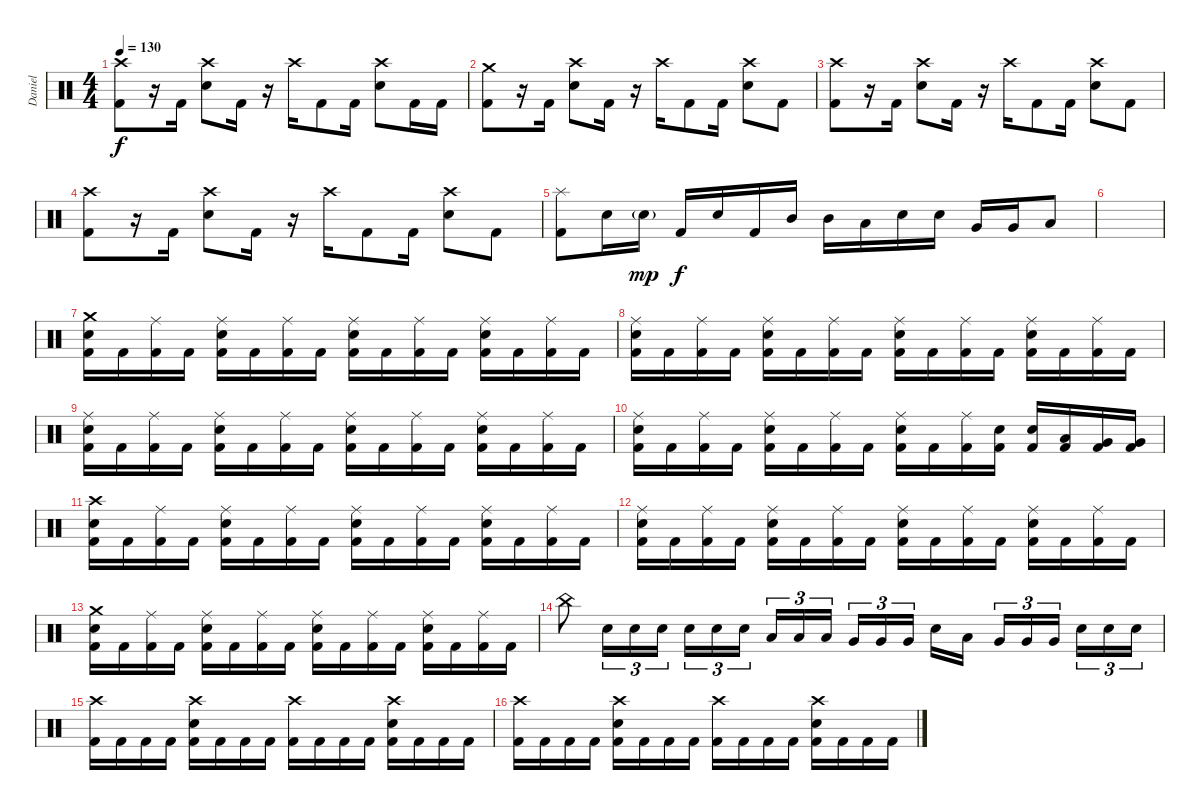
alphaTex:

\track ("Daniel" "Daniel") {instrument percussion}
\staff {score}
\articulation defaults
\ts (4 4)
\tempo 130
\clef neutral
\ks c
("Crash high (hit)" "Kick (hit) 2").8{dy f} r.16 "Kick (hit) 2".16 ("Crash high (hit)" "Electric Snare (hit)").8 "Kick (hit) 2".16 r.16 "Crash high (hit)".16 "Kick (hit) 2".8 "Kick (hit) 2".16 ("Crash high (hit)" "Electric Snare (hit)").8 "Kick (hit) 2".16 "Kick (hit) 2".16 |
("Crash medium (hit)" "Kick (hit) 2").8 r.16 "Kick (hit) 2".16 ("Crash high (hit)" "Electric Snare (hit)").8 "Kick (hit) 2".16 r.16 "Crash high (hit)".16 "Kick (hit) 2".8 "Kick (hit) 2".16 ("Crash high (hit)" "Electric Snare (hit)").8 "Kick (hit) 2".8 |
("Crash high (hit)" "Kick (hit) 2").8 r.16 "Kick (hit) 2".16 ("Crash high (hit)" "Electric Snare (hit)").8 "Kick (hit) 2".16 r.16 "Crash high (hit)".16 "Kick (hit) 2".8 "Kick (hit) 2".16 ("Crash high (hit)" "Electric Snare (hit)").8 "Kick (hit) 2".8 |
("Crash high (hit)" "Kick (hit) 2").8 r.16 "Kick (hit) 2".16 ("Crash high (hit)" "Electric Snare (hit)").8 "Kick (hit) 2".16 r.16 "Crash high (hit)".16 "Kick (hit) 2".8 "Kick (hit) 2".16 ("Crash high (hit)" "Electric Snare (hit)").8 "Kick (hit) 2".8 |
("Splash (hit)" "Kick (hit) 2").8 "Electric Snare (hit)".16 "Electric Snare (hit)"{g}.16{dy mp} "Kick (hit) 2".16{dy f} "Electric Snare (hit)".16 "Kick (hit) 2".16 "Mid Tom (hit)".16 "Mid Tom (hit)".16 "Low Tom (hit)".16 "Electric Snare (hit)".16 "Electric Snare (hit)".16 "Very Low Tom (hit)".16 "Very Low Tom (hit)".16 "Low Floor Tom (hit)".8 |
|
("Crash medium (hit)" "Electric Snare (hit)" "Kick (hit) 2").16 "Kick (hit) 2".16 ("Ride (middle)" "Kick (hit) 2").16 "Kick (hit) 2".16 ("Ride (middle)" "Electric Snare (hit)" "Kick (hit) 2").16 "Kick (hit) 2".16 ("Ride (middle)" "Kick (hit) 2").16 "Kick (hit) 2".16 ("Ride (middle)" "Electric Snare (hit)" "Kick (hit) 2").16 "Kick (hit) 2".16 ("Ride (middle)" "Kick (hit) 2").16 "Kick (hit) 2".16 ("Ride (middle)" "Electric Snare (hit)" "Kick (hit) 2").16 "Kick (hit) 2".16 ("Ride (middle)" "Kick (hit) 2").16 "Kick (hit) 2".16 |
("Ride (middle)" "Electric Snare (hit)" "Kick (hit) 2").16 "Kick (hit) 2".16 ("Ride (middle)" "Kick (hit) 2").16 "Kick (hit) 2".16 ("Ride (middle)" "Electric Snare (hit)" "Kick (hit) 2").16 "Kick (hit) 2".16 ("Ride (middle)" "Kick (hit) 2").16 "Kick (hit) 2".16 ("Ride (middle)" "Electric Snare (hit)" "Kick (hit) 2").16 "Kick (hit) 2".16 ("Ride (middle)" "Kick (hit) 2").16 "Kick (hit) 2".16 ("Ride (middle)" "Electric Snare (hit)" "Kick (hit) 2").16 "Kick (hit) 2".16 ("Ride (middle)" "Kick (hit) 2").16 "Kick (hit) 2".16 |
("Ride (middle)" "Electric Snare (hit)" "Kick (hit) 2").16 "Kick (hit) 2".16 ("Ride (middle)" "Kick (hit) 2").16 "Kick (hit) 2".16 ("Ride (middle)" "Electric Snare (hit)" "Kick (hit) 2").16 "Kick (hit) 2".16 ("Ride (middle)" "Kick (hit) 2").16 "Kick (hit) 2".16 ("Ride (middle)" "Electric Snare (hit)" "Kick (hit) 2").16 "Kick (hit) 2".16 ("Ride (middle)" "Kick (hit) 2").16 "Kick (hit) 2".16 ("Ride (middle)" "Electric Snare (hit)" "Kick (hit) 2").16 "Kick (hit) 2".16 ("Ride (middle)" "Kick (hit) 2").16 "Kick (hit) 2".16 |
("Ride (middle)" "Electric Snare (hit)" "Kick (hit) 2").16 "Kick (hit) 2".16 ("Ride (middle)" "Kick (hit) 2").16 "Kick (hit) 2".16 ("Ride (middle)" "Electric Snare (hit)" "Kick (hit) 2").16 "Kick (hit) 2".16 ("Ride (middle)" "Kick (hit) 2").16 "Kick (hit) 2".16 ("Ride (middle)" "Electric Snare (hit)" "Kick (hit) 2").16 "Kick (hit) 2".16 ("Ride (middle)" "Kick (hit) 2").16 ("Electric Snare (hit)" "Kick (hit) 2").16 ("Electric Snare (hit)" "Kick (hit) 2").16 ("Low Tom (hit)" "Kick (hit) 2").16 ("Very Low Tom (hit)" "Kick (hit) 2").16 ("Very Low Tom (hit)" "Kick (hit) 2").16 |
("Crash high (hit)" "Electric Snare (hit)" "Kick (hit) 2").16 "Kick (hit) 2".16 ("Ride (middle)" "Kick (hit) 2").16 "Kick (hit) 2".16 ("Ride (middle)" "Electric Snare (hit)" "Kick (hit) 2").16 "Kick (hit) 2".16 ("Ride (middle)" "Kick (hit) 2").16 "Kick (hit) 2".16 ("Ride (middle)" "Electric Snare (hit)" "Kick (hit) 2").16 "Kick (hit) 2".16 ("Ride (middle)" "Kick (hit) 2").16 "Kick (hit) 2".16 ("Ride (middle)" "Electric Snare (hit)" "Kick (hit) 2").16 "Kick (hit) 2".16 ("Ride (middle)" "Kick (hit) 2").16 "Kick (hit) 2".16 |
("Ride (middle)" "Electric Snare (hit)" "Kick (hit) 2").16 "Kick (hit) 2".16 ("Ride (middle)" "Kick (hit) 2").16 "Kick (hit) 2".16 ("Ride (middle)" "Electric Snare (hit)" "Kick (hit) 2").16 "Kick (hit) 2".16 ("Ride (middle)" "Kick (hit) 2").16 "Kick (hit) 2".16 ("Ride (middle)" "Electric Snare (hit)" "Kick (hit) 2").16 "Kick (hit) 2".16 ("Ride (middle)" "Kick (hit) 2").16 "Kick (hit) 2".16 ("Ride (middle)" "Electric Snare (hit)" "Kick (hit) 2").16 "Kick (hit) 2".16 ("Ride (middle)" "Kick (hit) 2").16 "Kick (hit) 2".16 |
("Crash medium (hit)" "Electric Snare (hit)" "Kick (hit) 2").16 "Kick (hit) 2".16 ("Ride (middle)" "Kick (hit) 2").16 "Kick (hit) 2".16 ("Ride (middle)" "Electric Snare (hit)" "Kick (hit) 2").16 "Kick (hit) 2".16 ("Ride (middle)" "Kick (hit) 2").16 "Kick (hit) 2".16 ("Ride (middle)" "Electric Snare (hit)" "Kick (hit) 2").16 "Kick (hit) 2".16 ("Ride (middle)" "Kick (hit) 2").16 "Kick (hit) 2".16 ("Ride (middle)" "Electric Snare (hit)" "Kick (hit) 2").16 "Kick (hit) 2".16 ("Ride (middle)" "Kick (hit) 2").16 "Kick (hit) 2".16 |
"China (hit)".8 "Electric Snare (hit)".16{tu (3 2)} "Electric Snare (hit)".16{tu (3 2)} "Electric Snare (hit)".16{tu (3 2)} "Electric Snare (hit)".16{tu (3 2)} "Electric Snare (hit)".16{tu (3 2)} "Electric Snare (hit)".16{tu (3 2)} "Low Tom (hit)".16{tu (3 2)} "Low Tom (hit)".16{tu (3 2)} "Low Tom (hit)".16{tu (3 2)} "Very Low Tom (hit)".16{tu (3 2)} "Very Low Tom (hit)".16{tu (3 2)} "Very Low Tom (hit)".16{tu (3 2)} "Electric Snare (hit)".16 "Low Tom (hit)".16 "Very Low Tom (hit)".16{tu (3 2)} "Very Low Tom (hit)".16{tu (3 2)} "Very Low Tom (hit)".16{tu (3 2)} "Electric Snare (hit)".16{tu (3 2)} "Electric Snare (hit)".16{tu (3 2)} "Electric Snare (hit)".16{tu (3 2)} |
("Crash high (hit)" "Kick (hit) 2").16 "Kick (hit) 2".16 "Kick (hit) 2".16 "Kick (hit) 2".16 ("Crash high (hit)" "Electric Snare (hit)" "Kick (hit) 2").16 "Kick (hit) 2".16 "Kick (hit) 2".16 "Kick (hit) 2".16 ("Crash high (hit)" "Kick (hit) 2").16 "Kick (hit) 2".16 "Kick (hit) 2".16 "Kick (hit) 2".16 ("Crash high (hit)" "Electric Snare (hit)" "Kick (hit) 2").16 "Kick (hit) 2".16 "Kick (hit) 2".16 "Kick (hit) 2".16 |
("Crash high (hit)" "Kick (hit) 2").16 "Kick (hit) 2".16 "Kick (hit) 2".16 "Kick (hit) 2".16 ("Crash high (hit)" "Electric Snare (hit)" "Kick (hit) 2").16 "Kick (hit) 2".16 "Kick (hit) 2".16 "Kick (hit) 2".16 ("Crash high (hit)" "Kick (hit) 2").16 "Kick (hit) 2".16 "Kick (hit) 2".16 "Kick (hit) 2".16 ("Crash high (hit)" "Electric Snare (hit)" "Kick (hit) 2").16 "Kick (hit) 2".16 "Kick (hit) 2".16 "Kick (hit) 2".16
